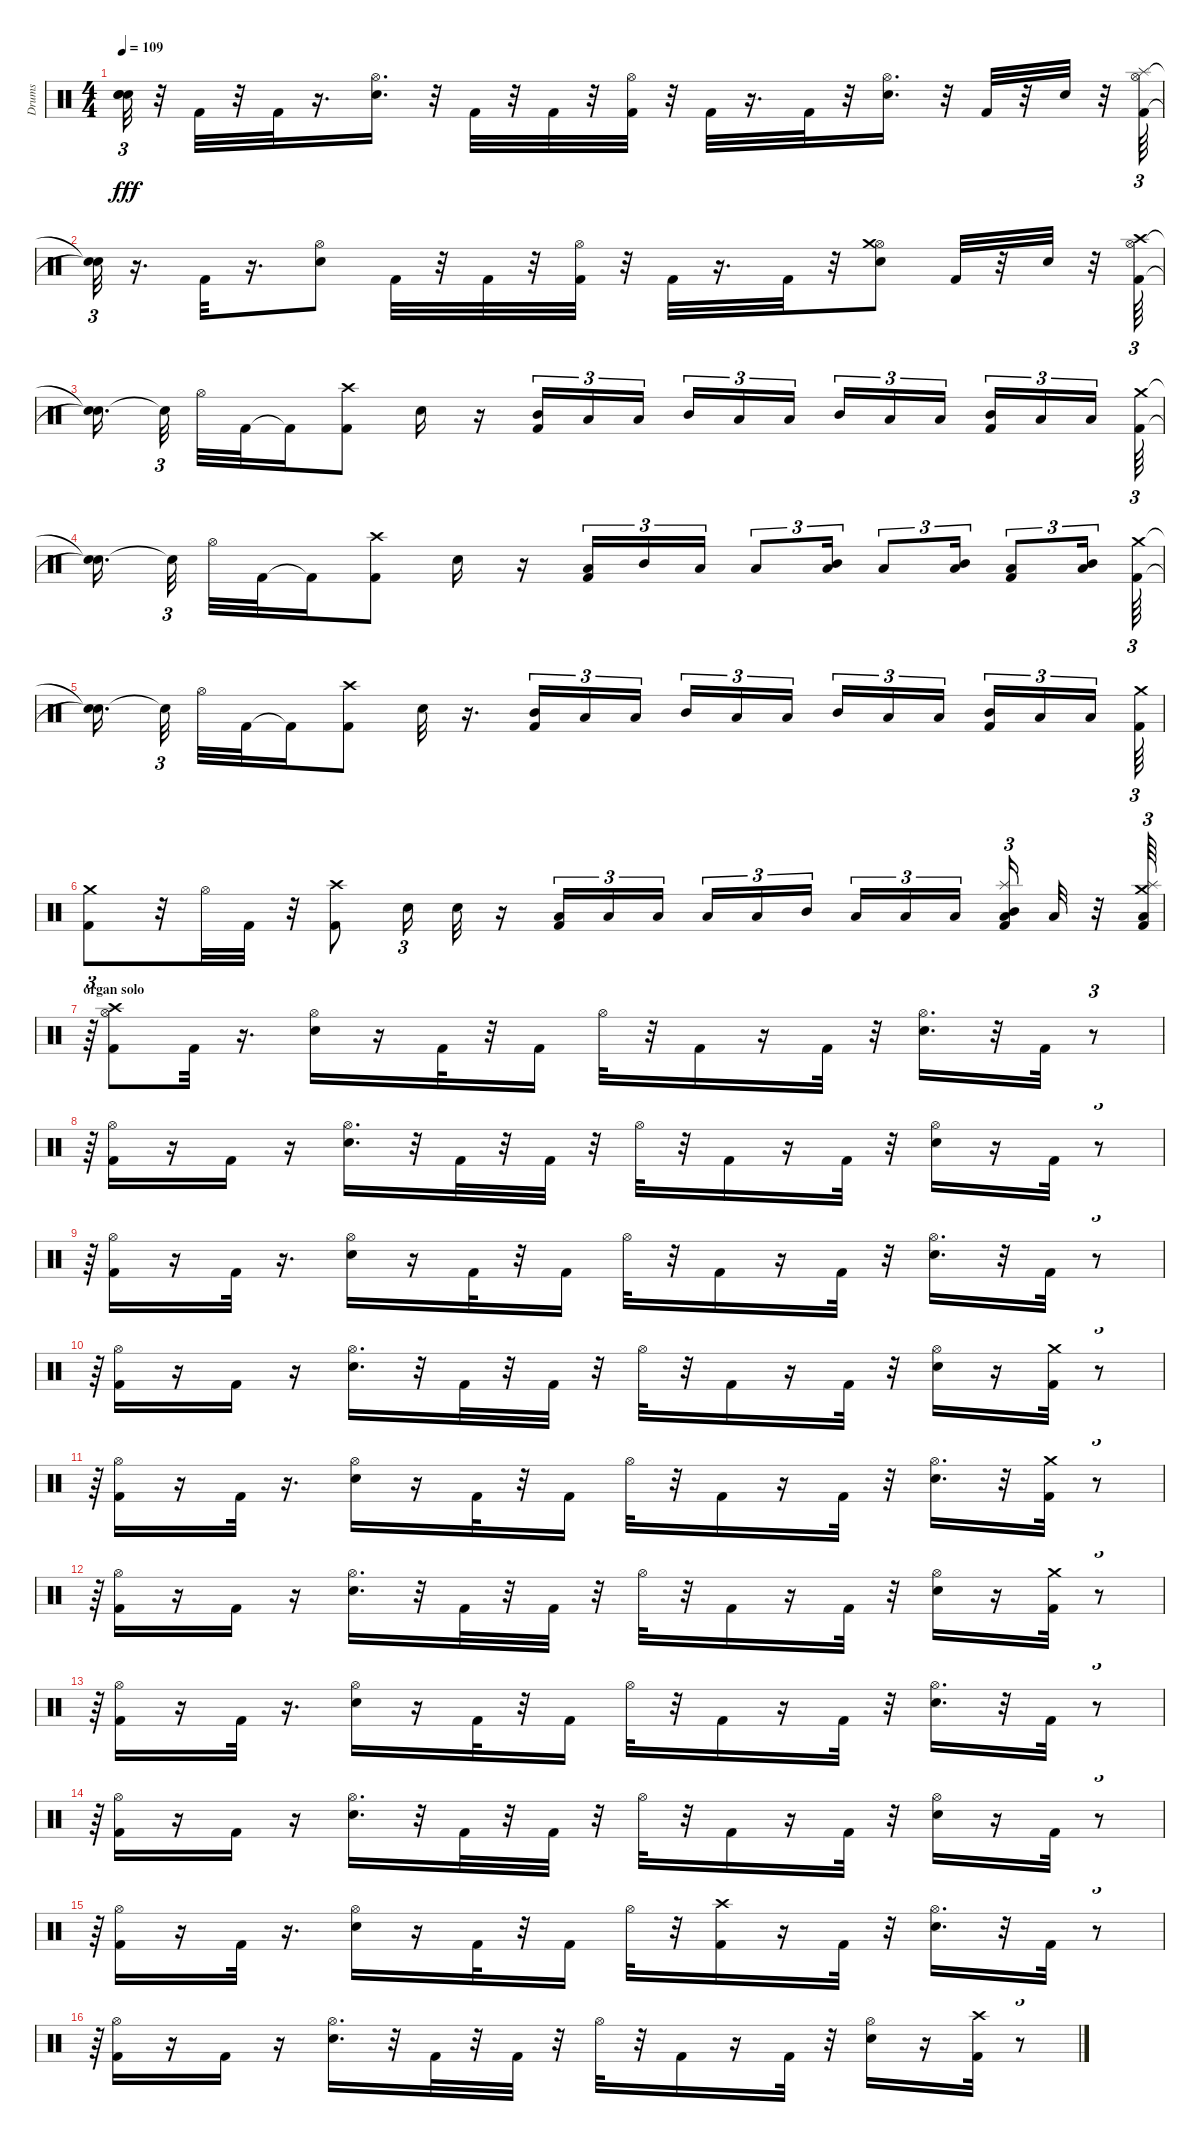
\track ("Drums" "Drums") {instrument percussion}
\staff {score}
\articulation defaults
\ts (4 4)
\tempo 109
\clef neutral
\ks c
("Snare (hit)"{t} "Snare (hit)"{t} "Snare (hit)"{t}).32{tu (3 2) dy fff} r.32 "Kick (hit) 2".32 r.32 "Kick (hit) 2".32 r.16{d} ("Snare (hit) 2" "Hi-Hat (open)").16{d} r.32 "Kick (hit) 2".32 r.32 "Kick (hit) 2".32 r.32 ("Kick (hit) 2" "Hi-Hat (open)").32 r.32 "Kick (hit) 2".32 r.16{d} "Kick (hit) 2".32 r.32 ("Snare (hit) 2" "Hi-Hat (open)").16{d} r.32 "Kick (hit) 2".32 r.32 "Snare (hit) 2".32 r.32 ("Kick (hit) 2" "Hi-Hat (open)" "Splash (hit)").64{tu (3 2)} |
("Snare (hit)"{t} "Snare (hit)"{t}).32{tu (3 2)} r.16{d} "Kick (hit) 2".32 r.16{d} ("Snare (hit) 2" "Hi-Hat (open)").8 "Kick (hit) 2".32 r.32 "Kick (hit) 2".32 r.32 ("Kick (hit) 2" "Hi-Hat (open)").32 r.32 "Kick (hit) 2".32 r.16{d} "Kick (hit) 2".32 r.32 ("Snare (hit) 2" "Hi-Hat (open)" "Crash medium (hit)").8 "Kick (hit) 2".32 r.32 "Snare (hit) 2".32 r.32 ("Kick (hit) 2" "Hi-Hat (open)" "Crash high (hit)").64{tu (3 2)} |
("Snare (hit)"{t} "Snare (hit)"{t}).16{d beam splitsecondary} "Snare (hit)"{t}.32{tu (3 2) beam splitsecondary} "Hi-Hat (open)".32 "Kick (hit) 2".32 "Kick (hit) 2"{t}.16 ("Kick (hit) 2" "Crash high (hit)").8 "Snare (hit) 2".16 r.16 ("Kick (hit) 2" "Mid Tom (hit)").16{tu (3 2)} "Low Tom (hit)".16{tu (3 2)} "Low Floor Tom (hit)".16{tu (3 2) beam splitsecondary} "Mid Tom (hit)".16{tu (3 2)} "Low Tom (hit)".16{tu (3 2)} "Low Floor Tom (hit)".16{tu (3 2) beam splitsecondary} "Mid Tom (hit)".16{tu (3 2)} "Low Tom (hit)".16{tu (3 2)} "Low Floor Tom (hit)".16{tu (3 2) beam splitsecondary} ("Kick (hit) 2" "Mid Tom (hit)").16{tu (3 2)} "Low Tom (hit)".16{tu (3 2)} "Low Floor Tom (hit)".16{tu (3 2) beam splitsecondary} ("Kick (hit) 2" "Crash medium (hit)").64{tu (3 2)} |
("Snare (hit)"{t} "Snare (hit)"{t}).16{d beam splitsecondary} "Snare (hit)"{t}.32{tu (3 2) beam splitsecondary} "Hi-Hat (open)".32 "Kick (hit) 2".32 "Kick (hit) 2"{t}.16 ("Kick (hit) 2" "Crash high (hit)").8 "Snare (hit) 2".16 r.16 ("Kick (hit) 2" "Low Tom (hit)").16{tu (3 2)} "Mid Tom (hit)".16{tu (3 2)} "Low Floor Tom (hit)".16{tu (3 2)} "Low Tom (hit)".8{tu (3 2)} ("Low Floor Tom (hit)" "Mid Tom (hit)").16{tu (3 2)} "Low Tom (hit)".8{tu (3 2)} ("Low Floor Tom (hit)" "Mid Tom (hit)").16{tu (3 2)} ("Kick (hit) 2" "Low Tom (hit)").8{tu (3 2)} ("Low Floor Tom (hit)" "Mid Tom (hit)").16{tu (3 2)} ("Kick (hit) 2" "Crash medium (hit)").64{tu (3 2)} |
("Snare (hit)"{t} "Snare (hit)"{t}).16{d beam splitsecondary} "Snare (hit)"{t}.32{tu (3 2) beam splitsecondary} "Hi-Hat (open)".32 "Kick (hit) 2".32 "Kick (hit) 2"{t}.16 ("Kick (hit) 2" "Crash high (hit)").8 "Snare (hit) 2".32 r.16{d} ("Kick (hit) 2" "Mid Tom (hit)").16{tu (3 2)} "Low Tom (hit)".16{tu (3 2)} "Low Floor Tom (hit)".16{tu (3 2) beam splitsecondary} "Mid Tom (hit)".16{tu (3 2)} "Low Tom (hit)".16{tu (3 2)} "Low Floor Tom (hit)".16{tu (3 2) beam splitsecondary} "Mid Tom (hit)".16{tu (3 2)} "Low Tom (hit)".16{tu (3 2)} "Low Floor Tom (hit)".16{tu (3 2) beam splitsecondary} ("Kick (hit) 2" "Mid Tom (hit)").16{tu (3 2)} "Low Tom (hit)".16{tu (3 2)} "Low Floor Tom (hit)".16{tu (3 2) beam splitsecondary} ("Kick (hit) 2" "Crash medium (hit)").64{tu (3 2)} |
("Kick (hit) 2" "Crash medium (hit)").8 r.32 "Hi-Hat (open)".32 "Kick (hit) 2".32 r.32 ("Kick (hit) 2" "Crash high (hit)").8 "Snare (hit) 2".16{tu (3 2)} "Snare (hit) 2".32 r.16 ("Kick (hit) 2" "Low Tom (hit)").16{tu (3 2)} "Low Tom (hit)".16{tu (3 2)} "Low Tom (hit)".16{tu (3 2) beam splitsecondary} "Low Tom (hit)".16{tu (3 2)} "Low Floor Tom (hit)".16{tu (3 2)} "Mid Tom (hit)".16{tu (3 2)} "Low Tom (hit)".16{tu (3 2)} "Low Floor Tom (hit)".16{tu (3 2)} "Low Tom (hit)".16{tu (3 2) beam splitsecondary} ("Kick (hit) 2" "Low Floor Tom (hit)" "Mid Tom (hit)" "Splash (hit)").16{tu (3 2)} "Low Tom (hit)".32 r.32 ("Kick (hit) 2" "Low Floor Tom (hit)" "Crash medium (hit)" "Splash (hit)").64{tu (3 2)} |
\section ("" "organ solo")
r.64{tu (3 2)} ("Kick (hit) 2" "Hi-Hat (open)" "Crash high (hit)").8 "Kick (hit) 2".32 r.16{d} ("Snare (hit) 2" "Hi-Hat (open)").16 r.16 "Kick (hit) 2".32 r.32 "Kick (hit) 2".16 "Hi-Hat (open)".32 r.32 "Kick (hit) 2".16 r.16 "Kick (hit) 2".32 r.32 ("Snare (hit) 2" "Hi-Hat (open)").16{d} r.32 "Kick (hit) 2".32 r.8{tu (3 2)} |
r.64{tu (3 2)} ("Kick (hit) 2" "Hi-Hat (open)").16 r.16 "Kick (hit) 2".16 r.16 ("Snare (hit) 2" "Hi-Hat (open)").16{d} r.32 "Kick (hit) 2".32 r.32 "Kick (hit) 2".32 r.32 "Hi-Hat (open)".32 r.32 "Kick (hit) 2".16 r.16 "Kick (hit) 2".32 r.32 ("Snare (hit) 2" "Hi-Hat (open)").16 r.16 "Kick (hit) 2".32 r.8{tu (3 2)} |
r.64{tu (3 2)} ("Kick (hit) 2" "Hi-Hat (open)").16 r.16 "Kick (hit) 2".32 r.16{d} ("Snare (hit) 2" "Hi-Hat (open)").16 r.16 "Kick (hit) 2".32 r.32 "Kick (hit) 2".16 "Hi-Hat (open)".32 r.32 "Kick (hit) 2".16 r.16 "Kick (hit) 2".32 r.32 ("Snare (hit) 2" "Hi-Hat (open)").16{d} r.32 "Kick (hit) 2".32 r.8{tu (3 2)} |
r.64{tu (3 2)} ("Kick (hit) 2" "Hi-Hat (open)").16 r.16 "Kick (hit) 2".16 r.16 ("Snare (hit) 2" "Hi-Hat (open)").16{d} r.32 "Kick (hit) 2".32 r.32 "Kick (hit) 2".32 r.32 "Hi-Hat (open)".32 r.32 "Kick (hit) 2".16 r.16 "Kick (hit) 2".32 r.32 ("Snare (hit) 2" "Hi-Hat (open)").16 r.16 ("Kick (hit) 2" "Crash medium (hit)").32 r.8{tu (3 2)} |
r.64{tu (3 2)} ("Kick (hit) 2" "Hi-Hat (open)").16 r.16 "Kick (hit) 2".32 r.16{d} ("Snare (hit) 2" "Hi-Hat (open)").16 r.16 "Kick (hit) 2".32 r.32 "Kick (hit) 2".16 "Hi-Hat (open)".32 r.32 "Kick (hit) 2".16 r.16 "Kick (hit) 2".32 r.32 ("Snare (hit) 2" "Hi-Hat (open)").16{d} r.32 ("Kick (hit) 2" "Crash medium (hit)").32 r.8{tu (3 2)} |
r.64{tu (3 2)} ("Kick (hit) 2" "Hi-Hat (open)").16 r.16 "Kick (hit) 2".16 r.16 ("Snare (hit) 2" "Hi-Hat (open)").16{d} r.32 "Kick (hit) 2".32 r.32 "Kick (hit) 2".32 r.32 "Hi-Hat (open)".32 r.32 "Kick (hit) 2".16 r.16 "Kick (hit) 2".32 r.32 ("Snare (hit) 2" "Hi-Hat (open)").16 r.16 ("Kick (hit) 2" "Crash medium (hit)").32 r.8{tu (3 2)} |
r.64{tu (3 2)} ("Kick (hit) 2" "Hi-Hat (open)").16 r.16 "Kick (hit) 2".32 r.16{d} ("Snare (hit) 2" "Hi-Hat (open)").16 r.16 "Kick (hit) 2".32 r.32 "Kick (hit) 2".16 "Hi-Hat (open)".32 r.32 "Kick (hit) 2".16 r.16 "Kick (hit) 2".32 r.32 ("Snare (hit) 2" "Hi-Hat (open)").16{d} r.32 "Kick (hit) 2".32 r.8{tu (3 2)} |
r.64{tu (3 2)} ("Kick (hit) 2" "Hi-Hat (open)").16 r.16 "Kick (hit) 2".16 r.16 ("Snare (hit) 2" "Hi-Hat (open)").16{d} r.32 "Kick (hit) 2".32 r.32 "Kick (hit) 2".32 r.32 "Hi-Hat (open)".32 r.32 "Kick (hit) 2".16 r.16 "Kick (hit) 2".32 r.32 ("Snare (hit) 2" "Hi-Hat (open)").16 r.16 "Kick (hit) 2".32 r.8{tu (3 2)} |
r.64{tu (3 2)} ("Kick (hit) 2" "Hi-Hat (open)").16 r.16 "Kick (hit) 2".32 r.16{d} ("Snare (hit) 2" "Hi-Hat (open)").16 r.16 "Kick (hit) 2".32 r.32 "Kick (hit) 2".16 "Hi-Hat (open)".32 r.32 ("Kick (hit) 2" "Crash high (hit)").16 r.16 "Kick (hit) 2".32 r.32 ("Snare (hit) 2" "Hi-Hat (open)").16{d} r.32 "Kick (hit) 2".32 r.8{tu (3 2)} |
r.64{tu (3 2)} ("Kick (hit) 2" "Hi-Hat (open)").16 r.16 "Kick (hit) 2".16 r.16 ("Snare (hit) 2" "Hi-Hat (open)").16{d} r.32 "Kick (hit) 2".32 r.32 "Kick (hit) 2".32 r.32 "Hi-Hat (open)".32 r.32 "Kick (hit) 2".16 r.16 "Kick (hit) 2".32 r.32 ("Snare (hit) 2" "Hi-Hat (open)").16 r.16 ("Kick (hit) 2" "Crash high (hit)").32 r.8{tu (3 2)}
